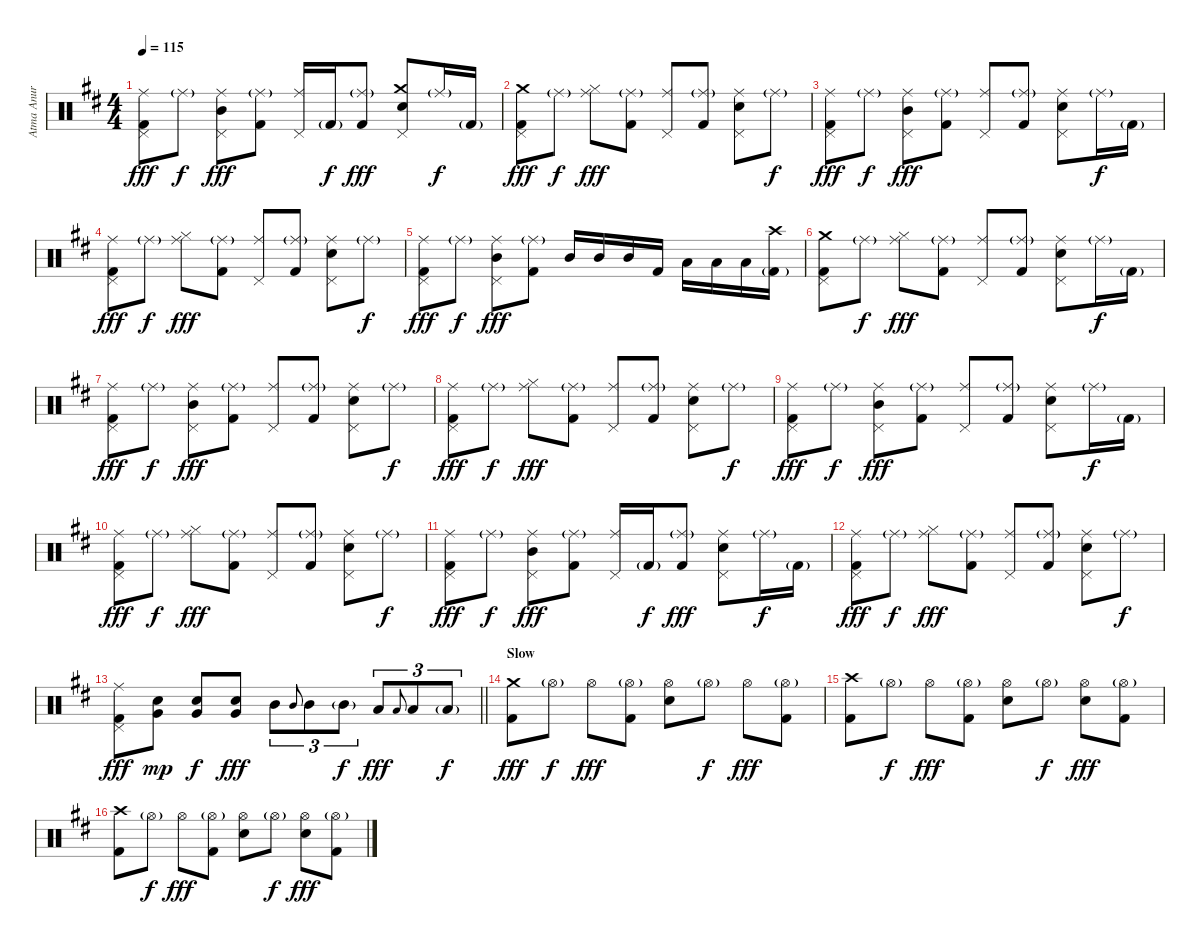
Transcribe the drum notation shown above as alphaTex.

\track ("Atma Anur" "Atma Anur") {instrument percussion}
\staff {score}
\articulation defaults
\ts (4 4)
\tempo 115
\clef neutral
\ks bminor
("Ride (middle)" "Pedal Hi-Hat (hit)" "Kick (hit) 2").8{dy fff} "Ride (middle)"{g}.8{dy f} ("Ride (middle)" "Mid Tom (hit)" "Pedal Hi-Hat (hit)").8{dy fff} ("Ride (middle)"{g} "Kick (hit) 2").8 ("Ride (middle)" "Pedal Hi-Hat (hit)").16 "Kick (hit) 2"{g}.16{dy f} ("Ride (middle)"{g} "Kick (hit) 2").8{dy fff} ("Crash medium (hit)" "Electric Snare (hit)" "Pedal Hi-Hat (hit)").8 "Ride (middle)"{g}.16{dy f} "Kick (hit) 2"{g}.16 |
("Crash medium (hit)" "Pedal Hi-Hat (hit)" "Kick (hit) 2").8{dy fff} "Ride (middle)"{g}.8{dy f} ("Ride (middle)" "Hi-Hat (closed)").8{dy fff} ("Ride (middle)"{g} "Kick (hit) 2").8 ("Ride (middle)" "Pedal Hi-Hat (hit)").8 ("Ride (middle)"{g} "Kick (hit) 2").8 ("Ride (middle)" "Electric Snare (hit)" "Pedal Hi-Hat (hit)").8 "Ride (middle)"{g}.8{dy f} |
("Ride (middle)" "Pedal Hi-Hat (hit)" "Kick (hit) 2").8{dy fff} "Ride (middle)"{g}.8{dy f} ("Ride (middle)" "Mid Tom (hit)" "Pedal Hi-Hat (hit)").8{dy fff} ("Ride (middle)"{g} "Kick (hit) 2").8 ("Ride (middle)" "Pedal Hi-Hat (hit)").8 ("Ride (middle)"{g} "Kick (hit) 2").8 ("Ride (middle)" "Electric Snare (hit)" "Pedal Hi-Hat (hit)").8 "Ride (middle)"{g}.16{dy f} "Kick (hit) 2"{g}.16 |
("Ride (middle)" "Pedal Hi-Hat (hit)" "Kick (hit) 2").8{dy fff} "Ride (middle)"{g}.8{dy f} ("Ride (middle)" "Hi-Hat (closed)").8{dy fff} ("Ride (middle)"{g} "Kick (hit) 2").8 ("Ride (middle)" "Pedal Hi-Hat (hit)").8 ("Ride (middle)"{g} "Kick (hit) 2").8 ("Ride (middle)" "Electric Snare (hit)" "Pedal Hi-Hat (hit)").8 "Ride (middle)"{g}.8{dy f} |
("Ride (middle)" "Pedal Hi-Hat (hit)" "Kick (hit) 2").8{dy fff} "Ride (middle)"{g}.8{dy f} ("Ride (middle)" "Mid Tom (hit)" "Pedal Hi-Hat (hit)").8{dy fff} ("Ride (middle)"{g} "Kick (hit) 2").8 "Mid Tom (hit)".16 "Mid Tom (hit)".16 "Mid Tom (hit)".16 "Kick (hit) 2".16 "Low Tom (hit)".16 "Low Tom (hit)".16 "Low Tom (hit)".16 ("Crash high (hit)" "Kick (hit) 2"{g}).16 |
("Crash medium (hit)" "Pedal Hi-Hat (hit)" "Kick (hit) 2").8 "Ride (middle)"{g}.8{dy f} ("Ride (middle)" "Hi-Hat (closed)").8{dy fff} ("Ride (middle)"{g} "Kick (hit) 2").8 ("Ride (middle)" "Pedal Hi-Hat (hit)").8 ("Ride (middle)"{g} "Kick (hit) 2").8 ("Ride (middle)" "Electric Snare (hit)" "Pedal Hi-Hat (hit)").8 "Ride (middle)"{g}.16{dy f} "Kick (hit) 2"{g}.16 |
("Ride (middle)" "Pedal Hi-Hat (hit)" "Kick (hit) 2").8{dy fff} "Ride (middle)"{g}.8{dy f} ("Ride (middle)" "Mid Tom (hit)" "Pedal Hi-Hat (hit)").8{dy fff} ("Ride (middle)"{g} "Kick (hit) 2").8 ("Ride (middle)" "Pedal Hi-Hat (hit)").8 ("Ride (middle)"{g} "Kick (hit) 2").8 ("Ride (middle)" "Electric Snare (hit)" "Pedal Hi-Hat (hit)").8 "Ride (middle)"{g}.8{dy f} |
("Ride (middle)" "Pedal Hi-Hat (hit)" "Kick (hit) 2").8{dy fff} "Ride (middle)"{g}.8{dy f} ("Ride (middle)" "Hi-Hat (closed)").8{dy fff} ("Ride (middle)"{g} "Kick (hit) 2").8 ("Ride (middle)" "Pedal Hi-Hat (hit)").8 ("Ride (middle)"{g} "Kick (hit) 2").8 ("Ride (middle)" "Electric Snare (hit)" "Pedal Hi-Hat (hit)").8 "Ride (middle)"{g}.8{dy f} |
("Ride (middle)" "Pedal Hi-Hat (hit)" "Kick (hit) 2").8{dy fff} "Ride (middle)"{g}.8{dy f} ("Ride (middle)" "Mid Tom (hit)" "Pedal Hi-Hat (hit)").8{dy fff} ("Ride (middle)"{g} "Kick (hit) 2").8 ("Ride (middle)" "Pedal Hi-Hat (hit)").8 ("Ride (middle)"{g} "Kick (hit) 2").8 ("Ride (middle)" "Electric Snare (hit)" "Pedal Hi-Hat (hit)").8 "Ride (middle)"{g}.16{dy f} "Kick (hit) 2"{g}.16 |
("Ride (middle)" "Pedal Hi-Hat (hit)" "Kick (hit) 2").8{dy fff} "Ride (middle)"{g}.8{dy f} ("Ride (middle)" "Hi-Hat (closed)").8{dy fff} ("Ride (middle)"{g} "Kick (hit) 2").8 ("Ride (middle)" "Pedal Hi-Hat (hit)").8 ("Ride (middle)"{g} "Kick (hit) 2").8 ("Ride (middle)" "Electric Snare (hit)" "Pedal Hi-Hat (hit)").8 "Ride (middle)"{g}.8{dy f} |
("Ride (middle)" "Pedal Hi-Hat (hit)" "Kick (hit) 2").8{dy fff} "Ride (middle)"{g}.8{dy f} ("Ride (middle)" "Mid Tom (hit)" "Pedal Hi-Hat (hit)").8{dy fff} ("Ride (middle)"{g} "Kick (hit) 2").8 ("Ride (middle)" "Pedal Hi-Hat (hit)").16 "Kick (hit) 2"{g}.16{dy f} ("Ride (middle)"{g} "Kick (hit) 2").8{dy fff} ("Ride (middle)" "Electric Snare (hit)" "Pedal Hi-Hat (hit)").8 "Ride (middle)"{g}.16{dy f} "Kick (hit) 2"{g}.16 |
("Ride (middle)" "Pedal Hi-Hat (hit)" "Kick (hit) 2").8{dy fff} "Ride (middle)"{g}.8{dy f} ("Ride (middle)" "Hi-Hat (closed)").8{dy fff} ("Ride (middle)"{g} "Kick (hit) 2").8 ("Ride (middle)" "Pedal Hi-Hat (hit)").8 ("Ride (middle)"{g} "Kick (hit) 2").8 ("Ride (middle)" "Electric Snare (hit)" "Pedal Hi-Hat (hit)").8 "Ride (middle)"{g}.8{dy f} |
\barLineRight lightlight
("Ride (middle)" "Pedal Hi-Hat (hit)" "Kick (hit) 2").8{dy fff} ("Very Low Tom (hit)" "Electric Snare (hit)").8{dy mp} ("Very Low Tom (hit)" "Electric Snare (hit)").8{dy f} ("Very Low Tom (hit)" "Electric Snare (hit)").8{dy fff} "Mid Tom (hit)".8{tu (3 2)} "Mid Tom (hit)".8{gr onbeat} "Mid Tom (hit)".8{tu (3 2)} "Mid Tom (hit)"{g}.8{tu (3 2) dy f} "Low Tom (hit)".8{tu (3 2) dy fff} "Low Tom (hit)".8{gr onbeat} "Low Tom (hit)".8{tu (3 2)} "Low Tom (hit)"{g}.8{tu (3 2) dy f} |
\section ("" "Slow")
("Crash medium (hit)" "Kick (hit) 2").8{dy fff} "Hi-Hat (open)"{g}.8{dy f} "Hi-Hat (open)".8{dy fff} ("Hi-Hat (open)"{g} "Kick (hit) 2").8 ("Hi-Hat (open)" "Electric Snare (hit)").8 "Hi-Hat (open)"{g}.8{dy f} "Hi-Hat (open)".8{dy fff} ("Hi-Hat (open)"{g} "Kick (hit) 2").8 |
("Crash high (hit)" "Kick (hit) 2").8 "Hi-Hat (open)"{g}.8{dy f} "Hi-Hat (open)".8{dy fff} ("Hi-Hat (open)"{g} "Kick (hit) 2").8 ("Hi-Hat (open)" "Electric Snare (hit)").8 "Hi-Hat (open)"{g}.8{dy f} ("Hi-Hat (open)" "Electric Snare (hit)").8{dy fff} ("Hi-Hat (open)"{g} "Kick (hit) 2").8 |
("Crash high (hit)" "Kick (hit) 2").8 "Hi-Hat (open)"{g}.8{dy f} "Hi-Hat (open)".8{dy fff} ("Hi-Hat (open)"{g} "Kick (hit) 2").8 ("Hi-Hat (open)" "Electric Snare (hit)").8 "Hi-Hat (open)"{g}.8{dy f} ("Hi-Hat (open)" "Electric Snare (hit)").8{dy fff} ("Hi-Hat (open)"{g} "Kick (hit) 2").8
